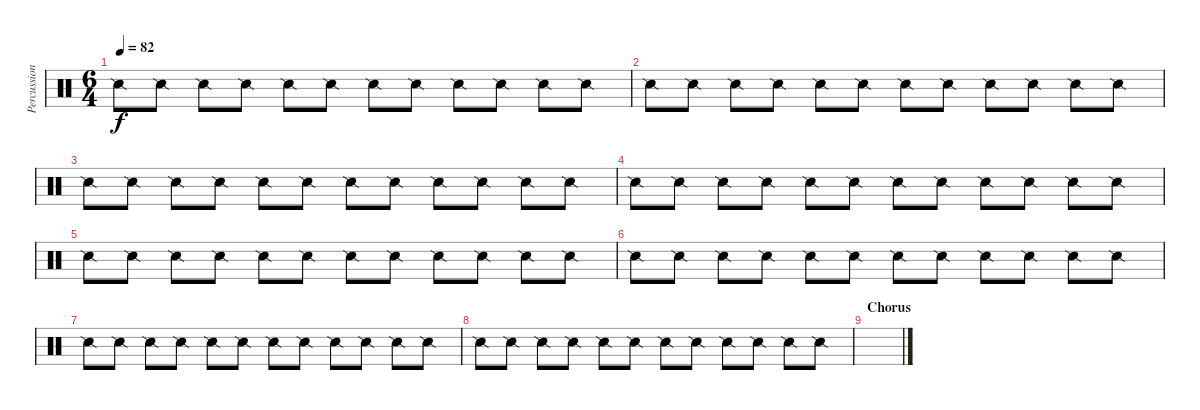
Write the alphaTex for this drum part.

\track ("Percussion" "Percussion") {instrument percussion}
\staff {score}
\articulation defaults
\ts (6 4)
\tempo 82
\clef neutral
\ks c "Snare (side stick) 2".8{dy f} "Snare (side stick) 2".8 "Snare (side stick) 2".8 "Snare (side stick) 2".8 "Snare (side stick) 2".8 "Snare (side stick) 2".8 "Snare (side stick) 2".8 "Snare (side stick) 2".8 "Snare (side stick) 2".8 "Snare (side stick) 2".8 "Snare (side stick) 2".8 "Snare (side stick) 2".8
|
"Snare (side stick) 2".8 "Snare (side stick) 2".8 "Snare (side stick) 2".8 "Snare (side stick) 2".8 "Snare (side stick) 2".8 "Snare (side stick) 2".8 "Snare (side stick) 2".8 "Snare (side stick) 2".8 "Snare (side stick) 2".8 "Snare (side stick) 2".8 "Snare (side stick) 2".8 "Snare (side stick) 2".8 |
"Snare (side stick) 2".8 "Snare (side stick) 2".8 "Snare (side stick) 2".8 "Snare (side stick) 2".8 "Snare (side stick) 2".8 "Snare (side stick) 2".8 "Snare (side stick) 2".8 "Snare (side stick) 2".8 "Snare (side stick) 2".8 "Snare (side stick) 2".8 "Snare (side stick) 2".8 "Snare (side stick) 2".8 |
"Snare (side stick) 2".8 "Snare (side stick) 2".8 "Snare (side stick) 2".8 "Snare (side stick) 2".8 "Snare (side stick) 2".8 "Snare (side stick) 2".8 "Snare (side stick) 2".8 "Snare (side stick) 2".8 "Snare (side stick) 2".8 "Snare (side stick) 2".8 "Snare (side stick) 2".8 "Snare (side stick) 2".8 |
"Snare (side stick) 2".8 "Snare (side stick) 2".8 "Snare (side stick) 2".8 "Snare (side stick) 2".8 "Snare (side stick) 2".8 "Snare (side stick) 2".8 "Snare (side stick) 2".8 "Snare (side stick) 2".8 "Snare (side stick) 2".8 "Snare (side stick) 2".8 "Snare (side stick) 2".8 "Snare (side stick) 2".8 |
"Snare (side stick) 2".8 "Snare (side stick) 2".8 "Snare (side stick) 2".8 "Snare (side stick) 2".8 "Snare (side stick) 2".8 "Snare (side stick) 2".8 "Snare (side stick) 2".8 "Snare (side stick) 2".8 "Snare (side stick) 2".8 "Snare (side stick) 2".8 "Snare (side stick) 2".8 "Snare (side stick) 2".8 |
"Snare (side stick) 2".8 "Snare (side stick) 2".8 "Snare (side stick) 2".8 "Snare (side stick) 2".8 "Snare (side stick) 2".8 "Snare (side stick) 2".8 "Snare (side stick) 2".8 "Snare (side stick) 2".8 "Snare (side stick) 2".8 "Snare (side stick) 2".8 "Snare (side stick) 2".8 "Snare (side stick) 2".8 |
"Snare (side stick) 2".8 "Snare (side stick) 2".8 "Snare (side stick) 2".8 "Snare (side stick) 2".8 "Snare (side stick) 2".8 "Snare (side stick) 2".8 "Snare (side stick) 2".8 "Snare (side stick) 2".8 "Snare (side stick) 2".8 "Snare (side stick) 2".8 "Snare (side stick) 2".8 "Snare (side stick) 2".8 |
\section ("" "Chorus")
